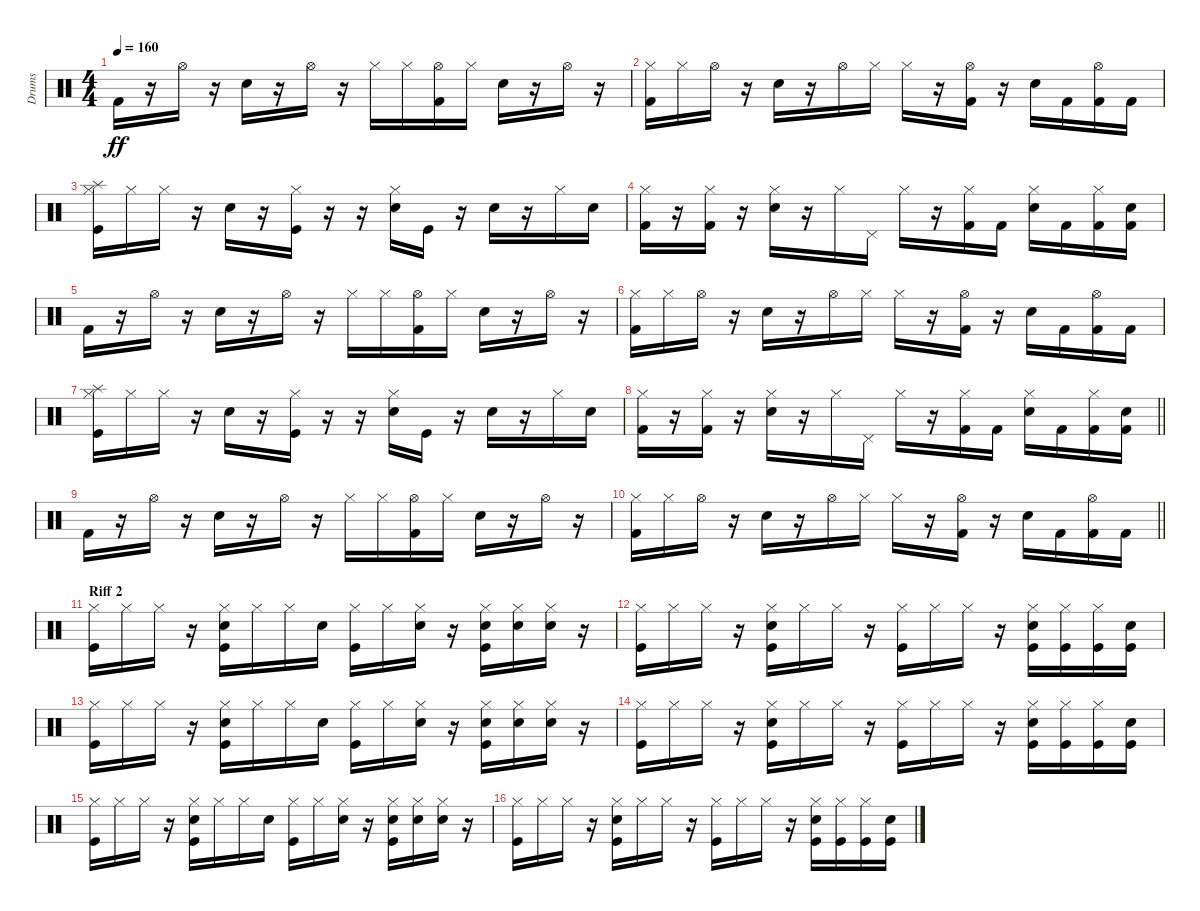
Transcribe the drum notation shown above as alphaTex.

\track ("Drums" "Drums") {instrument percussion}
\staff {score}
\articulation defaults
\ts (4 4)
\tempo 160
\clef neutral
\ks c "Kick (hit) 2".16{dy ff}
r.16 "Hi-Hat (open)".16 r.16 "Snare (hit) 2".16 r.16 "Hi-Hat (open)".16 r.16 "Hi-Hat (closed)".16 "Hi-Hat (closed)".16 ("Kick (hit) 2" "Hi-Hat (open)").16 "Hi-Hat (closed)".16 "Snare (hit) 2".16 r.16 "Hi-Hat (open)".16 r.16 |
("Kick (hit) 2" "Hi-Hat (closed)").16 "Hi-Hat (closed)".16 "Hi-Hat (open)".16 r.16 "Snare (hit) 2".16 r.16 "Hi-Hat (open)".16 "Hi-Hat (closed)".16 "Hi-Hat (closed)".16 r.16 ("Kick (hit) 2" "Hi-Hat (open)").16 r.16 "Snare (hit) 2".16 "Kick (hit) 2".16 ("Kick (hit) 2" "Hi-Hat (open)").16 "Kick (hit) 2".16 |
("Kick (hit)" "Hi-Hat (closed)" "Splash (hit)").16 "Hi-Hat (closed)".16 "Hi-Hat (closed)".16 r.16 "Snare (hit) 2".16 r.16 ("Kick (hit)" "Hi-Hat (closed)").16 r.16 r.16 ("Snare (hit) 2" "Hi-Hat (closed)").16 "Kick (hit)".16 r.16 "Snare (hit) 2".16 r.16 "Hi-Hat (closed)".16 "Snare (hit) 2".16 |
("Kick (hit) 2" "Hi-Hat (closed)").16 r.16 ("Kick (hit) 2" "Hi-Hat (closed)").16 r.16 ("Snare (hit) 2" "Hi-Hat (closed)").16 r.16 "Hi-Hat (closed)".16 "Pedal Hi-Hat (hit)".16 "Hi-Hat (closed)".16 r.16 ("Kick (hit) 2" "Hi-Hat (closed)").16 "Kick (hit) 2".16 ("Snare (hit) 2" "Hi-Hat (closed)").16 "Kick (hit) 2".16 ("Kick (hit) 2" "Hi-Hat (closed)").16 ("Kick (hit) 2" "Snare (hit) 2").16 |
"Kick (hit) 2".16 r.16 "Hi-Hat (open)".16 r.16 "Snare (hit) 2".16 r.16 "Hi-Hat (open)".16 r.16 "Hi-Hat (closed)".16 "Hi-Hat (closed)".16 ("Kick (hit) 2" "Hi-Hat (open)").16 "Hi-Hat (closed)".16 "Snare (hit) 2".16 r.16 "Hi-Hat (open)".16 r.16 |
("Kick (hit) 2" "Hi-Hat (closed)").16 "Hi-Hat (closed)".16 "Hi-Hat (open)".16 r.16 "Snare (hit) 2".16 r.16 "Hi-Hat (open)".16 "Hi-Hat (closed)".16 "Hi-Hat (closed)".16 r.16 ("Kick (hit) 2" "Hi-Hat (open)").16 r.16 "Snare (hit) 2".16 "Kick (hit) 2".16 ("Kick (hit) 2" "Hi-Hat (open)").16 "Kick (hit) 2".16 |
("Kick (hit)" "Hi-Hat (closed)" "Splash (hit)").16 "Hi-Hat (closed)".16 "Hi-Hat (closed)".16 r.16 "Snare (hit) 2".16 r.16 ("Kick (hit)" "Hi-Hat (closed)").16 r.16 r.16 ("Snare (hit) 2" "Hi-Hat (closed)").16 "Kick (hit)".16 r.16 "Snare (hit) 2".16 r.16 "Hi-Hat (closed)".16 "Snare (hit) 2".16 |
\barLineRight lightlight
("Kick (hit) 2" "Hi-Hat (closed)").16 r.16 ("Kick (hit) 2" "Hi-Hat (closed)").16 r.16 ("Snare (hit) 2" "Hi-Hat (closed)").16 r.16 "Hi-Hat (closed)".16 "Pedal Hi-Hat (hit)".16 "Hi-Hat (closed)".16 r.16 ("Kick (hit) 2" "Hi-Hat (closed)").16 "Kick (hit) 2".16 ("Snare (hit) 2" "Hi-Hat (closed)").16 "Kick (hit) 2".16 ("Kick (hit) 2" "Hi-Hat (closed)").16 ("Kick (hit) 2" "Snare (hit) 2").16 |
"Kick (hit) 2".16 r.16 "Hi-Hat (open)".16 r.16 "Snare (hit) 2".16 r.16 "Hi-Hat (open)".16 r.16 "Hi-Hat (closed)".16 "Hi-Hat (closed)".16 ("Kick (hit) 2" "Hi-Hat (open)").16 "Hi-Hat (closed)".16 "Snare (hit) 2".16 r.16 "Hi-Hat (open)".16 r.16 |
\barLineRight lightlight
("Kick (hit) 2" "Hi-Hat (closed)").16 "Hi-Hat (closed)".16 "Hi-Hat (open)".16 r.16 "Snare (hit) 2".16 r.16 "Hi-Hat (open)".16 "Hi-Hat (closed)".16 "Hi-Hat (closed)".16 r.16 ("Kick (hit) 2" "Hi-Hat (open)").16 r.16 "Snare (hit) 2".16 "Kick (hit) 2".16 ("Kick (hit) 2" "Hi-Hat (open)").16 "Kick (hit) 2".16 |
\section ("" "Riff 2")
("Kick (hit)" "Hi-Hat (closed)").16 "Hi-Hat (closed)".16 "Hi-Hat (closed)".16 r.16 ("Kick (hit)" "Snare (hit) 2" "Hi-Hat (closed)").16 "Hi-Hat (closed)".16 "Hi-Hat (closed)".16 "Electric Snare (hit)".16 ("Kick (hit)" "Hi-Hat (closed)").16 "Hi-Hat (closed)".16 ("Electric Snare (hit)" "Hi-Hat (closed)").16 r.16 ("Kick (hit)" "Snare (hit) 2" "Hi-Hat (closed)").16 ("Electric Snare (hit)" "Hi-Hat (closed)").16 ("Electric Snare (hit)" "Hi-Hat (closed)").16 r.16 |
("Kick (hit)" "Hi-Hat (closed)").16 "Hi-Hat (closed)".16 "Hi-Hat (closed)".16 r.16 ("Kick (hit)" "Snare (hit) 2" "Hi-Hat (closed)").16 "Hi-Hat (closed)".16 "Hi-Hat (closed)".16 r.16 ("Kick (hit)" "Hi-Hat (closed)").16 "Hi-Hat (closed)".16 "Hi-Hat (closed)".16 r.16 ("Kick (hit)" "Snare (hit) 2" "Hi-Hat (closed)").16 ("Kick (hit)" "Hi-Hat (closed)").16 ("Kick (hit)" "Hi-Hat (closed)").16 ("Kick (hit)" "Snare (hit) 2").16 |
("Kick (hit)" "Hi-Hat (closed)").16 "Hi-Hat (closed)".16 "Hi-Hat (closed)".16 r.16 ("Kick (hit)" "Snare (hit) 2" "Hi-Hat (closed)").16 "Hi-Hat (closed)".16 "Hi-Hat (closed)".16 "Electric Snare (hit)".16 ("Kick (hit)" "Hi-Hat (closed)").16 "Hi-Hat (closed)".16 ("Electric Snare (hit)" "Hi-Hat (closed)").16 r.16 ("Kick (hit)" "Snare (hit) 2" "Hi-Hat (closed)").16 ("Electric Snare (hit)" "Hi-Hat (closed)").16 ("Electric Snare (hit)" "Hi-Hat (closed)").16 r.16 |
("Kick (hit)" "Hi-Hat (closed)").16 "Hi-Hat (closed)".16 "Hi-Hat (closed)".16 r.16 ("Kick (hit)" "Snare (hit) 2" "Hi-Hat (closed)").16 "Hi-Hat (closed)".16 "Hi-Hat (closed)".16 r.16 ("Kick (hit)" "Hi-Hat (closed)").16 "Hi-Hat (closed)".16 "Hi-Hat (closed)".16 r.16 ("Kick (hit)" "Snare (hit) 2" "Hi-Hat (closed)").16 ("Kick (hit)" "Hi-Hat (closed)").16 ("Kick (hit)" "Hi-Hat (closed)").16 ("Kick (hit)" "Snare (hit) 2").16 |
("Kick (hit)" "Hi-Hat (closed)").16 "Hi-Hat (closed)".16 "Hi-Hat (closed)".16 r.16 ("Kick (hit)" "Snare (hit) 2" "Hi-Hat (closed)").16 "Hi-Hat (closed)".16 "Hi-Hat (closed)".16 "Electric Snare (hit)".16 ("Kick (hit)" "Hi-Hat (closed)").16 "Hi-Hat (closed)".16 ("Electric Snare (hit)" "Hi-Hat (closed)").16 r.16 ("Kick (hit)" "Snare (hit) 2" "Hi-Hat (closed)").16 ("Electric Snare (hit)" "Hi-Hat (closed)").16 ("Electric Snare (hit)" "Hi-Hat (closed)").16 r.16 |
("Kick (hit)" "Hi-Hat (closed)").16 "Hi-Hat (closed)".16 "Hi-Hat (closed)".16 r.16 ("Kick (hit)" "Snare (hit) 2" "Hi-Hat (closed)").16 "Hi-Hat (closed)".16 "Hi-Hat (closed)".16 r.16 ("Kick (hit)" "Hi-Hat (closed)").16 "Hi-Hat (closed)".16 "Hi-Hat (closed)".16 r.16 ("Kick (hit)" "Snare (hit) 2" "Hi-Hat (closed)").16 ("Kick (hit)" "Hi-Hat (closed)").16 ("Kick (hit)" "Hi-Hat (closed)").16 ("Kick (hit)" "Snare (hit) 2").16
